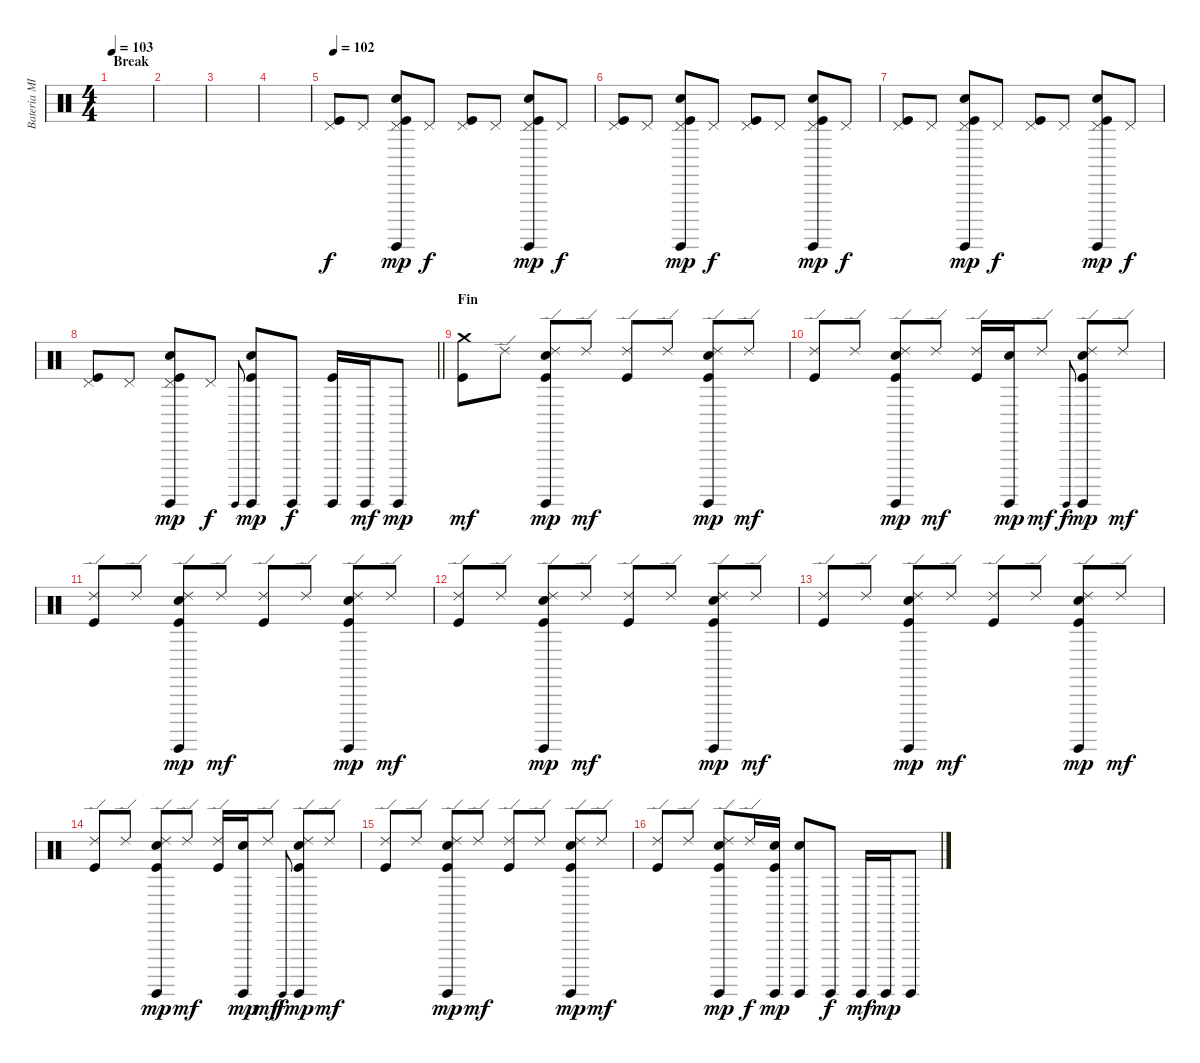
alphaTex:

\track ("Bateria MIDI" "Bateria MI") {instrument percussion}
\staff {score}
\articulation defaults
\ts (4 4)
\section ("" "Break")
\tempo 103
\clef neutral
\ks c
|
|
|
|
\tempo 102
("Pedal Hi-Hat (hit)" "Kick (hit)").8 "Pedal Hi-Hat (hit)".8 ("Pedal Hi-Hat (hit)" "Surdo (hit)" "Electric Snare (hit)" "Kick (hit)").8{dy mp} "Pedal Hi-Hat (hit)".8{dy f} ("Pedal Hi-Hat (hit)" "Kick (hit)").8 "Pedal Hi-Hat (hit)".8 ("Pedal Hi-Hat (hit)" "Surdo (hit)" "Electric Snare (hit)" "Kick (hit)").8{dy mp} "Pedal Hi-Hat (hit)".8{dy f} |
("Pedal Hi-Hat (hit)" "Kick (hit)").8 "Pedal Hi-Hat (hit)".8 ("Pedal Hi-Hat (hit)" "Surdo (hit)" "Electric Snare (hit)" "Kick (hit)").8{dy mp} "Pedal Hi-Hat (hit)".8{dy f} ("Pedal Hi-Hat (hit)" "Kick (hit)").8 "Pedal Hi-Hat (hit)".8 ("Pedal Hi-Hat (hit)" "Surdo (hit)" "Electric Snare (hit)" "Kick (hit)").8{dy mp} "Pedal Hi-Hat (hit)".8{dy f} |
("Pedal Hi-Hat (hit)" "Kick (hit)").8 "Pedal Hi-Hat (hit)".8 ("Pedal Hi-Hat (hit)" "Surdo (hit)" "Electric Snare (hit)" "Kick (hit)").8{dy mp} "Pedal Hi-Hat (hit)".8{dy f} ("Pedal Hi-Hat (hit)" "Kick (hit)").8 "Pedal Hi-Hat (hit)".8 ("Pedal Hi-Hat (hit)" "Surdo (hit)" "Electric Snare (hit)" "Kick (hit)").8{dy mp} "Pedal Hi-Hat (hit)".8{dy f} |
\barLineRight lightlight
("Pedal Hi-Hat (hit)" "Kick (hit)").8 "Pedal Hi-Hat (hit)".8 ("Pedal Hi-Hat (hit)" "Surdo (hit)" "Electric Snare (hit)" "Kick (hit)").8{dy mp} "Pedal Hi-Hat (hit)".8{dy f} "Surdo (hit)".8{gr onbeat} ("Surdo (hit)" "Electric Snare (hit)" "Kick (hit)").8{dy mp} "Surdo (hit)".8{dy f} ("Surdo (hit)" "Kick (hit)").16 "Surdo (hit)".16{dy mf} "Surdo (hit)".8{dy mp} |
\section ("" "Fin")
("Crash medium (hit)" "Kick (hit)").8{dy mf} "Ride (edge) 2".8 ("Ride (edge) 2" "Surdo (hit)" "Electric Snare (hit)" "Kick (hit)").8{dy mp} "Ride (edge) 2".8{dy mf} ("Ride (edge) 2" "Kick (hit)").8 "Ride (edge) 2".8 ("Ride (edge) 2" "Surdo (hit)" "Electric Snare (hit)" "Kick (hit)").8{dy mp} "Ride (edge) 2".8{dy mf} |
("Ride (edge) 2" "Kick (hit)").8 "Ride (edge) 2".8 ("Ride (edge) 2" "Surdo (hit)" "Electric Snare (hit)" "Kick (hit)").8{dy mp} "Ride (edge) 2".8{dy mf} ("Ride (edge) 2" "Kick (hit)").16 ("Surdo (hit)" "Electric Snare (hit)").16{dy mp} "Ride (edge) 2".8{dy mf} "Surdo (hit)".8{gr onbeat dy f} ("Ride (edge) 2" "Surdo (hit)" "Electric Snare (hit)" "Kick (hit)").8{dy mp} "Ride (edge) 2".8{dy mf} |
("Ride (edge) 2" "Kick (hit)").8 "Ride (edge) 2".8 ("Ride (edge) 2" "Surdo (hit)" "Electric Snare (hit)" "Kick (hit)").8{dy mp} "Ride (edge) 2".8{dy mf} ("Ride (edge) 2" "Kick (hit)").8 "Ride (edge) 2".8 ("Ride (edge) 2" "Surdo (hit)" "Electric Snare (hit)" "Kick (hit)").8{dy mp} "Ride (edge) 2".8{dy mf} |
("Ride (edge) 2" "Kick (hit)").8 "Ride (edge) 2".8 ("Ride (edge) 2" "Surdo (hit)" "Electric Snare (hit)" "Kick (hit)").8{dy mp} "Ride (edge) 2".8{dy mf} ("Ride (edge) 2" "Kick (hit)").8 "Ride (edge) 2".8 ("Ride (edge) 2" "Surdo (hit)" "Electric Snare (hit)" "Kick (hit)").8{dy mp} "Ride (edge) 2".8{dy mf} |
("Ride (edge) 2" "Kick (hit)").8 "Ride (edge) 2".8 ("Ride (edge) 2" "Surdo (hit)" "Electric Snare (hit)" "Kick (hit)").8{dy mp} "Ride (edge) 2".8{dy mf} ("Ride (edge) 2" "Kick (hit)").8 "Ride (edge) 2".8 ("Ride (edge) 2" "Surdo (hit)" "Electric Snare (hit)" "Kick (hit)").8{dy mp} "Ride (edge) 2".8{dy mf} |
("Ride (edge) 2" "Kick (hit)").8 "Ride (edge) 2".8 ("Ride (edge) 2" "Surdo (hit)" "Electric Snare (hit)" "Kick (hit)").8{dy mp} "Ride (edge) 2".8{dy mf} ("Ride (edge) 2" "Kick (hit)").16 ("Surdo (hit)" "Electric Snare (hit)").16{dy mp} "Ride (edge) 2".8{dy mf} "Surdo (hit)".8{gr onbeat dy f} ("Ride (edge) 2" "Surdo (hit)" "Electric Snare (hit)" "Kick (hit)").8{dy mp} "Ride (edge) 2".8{dy mf} |
("Ride (edge) 2" "Kick (hit)").8 "Ride (edge) 2".8 ("Ride (edge) 2" "Surdo (hit)" "Electric Snare (hit)" "Kick (hit)").8{dy mp} "Ride (edge) 2".8{dy mf} ("Ride (edge) 2" "Kick (hit)").8 "Ride (edge) 2".8 ("Ride (edge) 2" "Surdo (hit)" "Electric Snare (hit)" "Kick (hit)").8{dy mp} "Ride (edge) 2".8{dy mf} |
("Ride (edge) 2" "Kick (hit)").8 "Ride (edge) 2".8 ("Ride (edge) 2" "Surdo (hit)" "Electric Snare (hit)" "Kick (hit)").8{dy mp} "Ride (edge) 2".16{dy f} ("Surdo (hit)" "Electric Snare (hit)" "Kick (hit)").16{dy mp} ("Surdo (hit)" "Electric Snare (hit)").8 "Surdo (hit)".8{dy f} "Surdo (hit)".16{dy mf} "Surdo (hit)".16{dy mp} "Surdo (hit)".8
